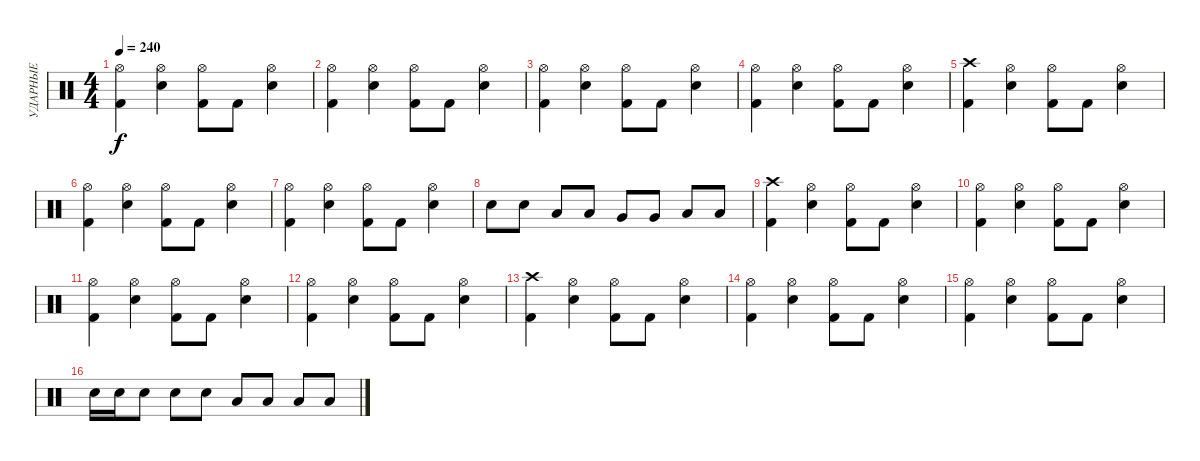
\track ("УДАРНЫЕ" "УДАРНЫЕ") {instrument percussion}
\staff {score}
\articulation defaults
\ts (4 4)
\tempo 240
\clef neutral
\ks c
("Kick (hit) 2" "Hi-Hat (open)").4{dy f} ("Snare (hit) 2" "Hi-Hat (open)").4 ("Kick (hit) 2" "Hi-Hat (open)").8 "Kick (hit) 2".8 ("Snare (hit) 2" "Hi-Hat (open)").4 |
("Kick (hit) 2" "Hi-Hat (open)").4 ("Snare (hit) 2" "Hi-Hat (open)").4 ("Kick (hit) 2" "Hi-Hat (open)").8 "Kick (hit) 2".8 ("Snare (hit) 2" "Hi-Hat (open)").4 |
("Kick (hit) 2" "Hi-Hat (open)").4 ("Snare (hit) 2" "Hi-Hat (open)").4 ("Kick (hit) 2" "Hi-Hat (open)").8 "Kick (hit) 2".8 ("Snare (hit) 2" "Hi-Hat (open)").4 |
("Kick (hit) 2" "Hi-Hat (open)").4 ("Snare (hit) 2" "Hi-Hat (open)").4 ("Kick (hit) 2" "Hi-Hat (open)").8 "Kick (hit) 2".8 ("Snare (hit) 2" "Hi-Hat (open)").4 |
("Kick (hit) 2" "Crash high (hit)").4 ("Snare (hit) 2" "Hi-Hat (open)").4 ("Kick (hit) 2" "Hi-Hat (open)").8 "Kick (hit) 2".8 ("Snare (hit) 2" "Hi-Hat (open)").4 |
("Kick (hit) 2" "Hi-Hat (open)").4 ("Snare (hit) 2" "Hi-Hat (open)").4 ("Kick (hit) 2" "Hi-Hat (open)").8 "Kick (hit) 2".8 ("Snare (hit) 2" "Hi-Hat (open)").4 |
("Kick (hit) 2" "Hi-Hat (open)").4 ("Snare (hit) 2" "Hi-Hat (open)").4 ("Kick (hit) 2" "Hi-Hat (open)").8 "Kick (hit) 2".8 ("Snare (hit) 2" "Hi-Hat (open)").4 |
"Snare (hit) 2".8 "Snare (hit) 2".8 "Low Tom (hit)".8 "Low Tom (hit)".8 "Very Low Tom (hit)".8 "Very Low Tom (hit)".8 "Low Floor Tom (hit)".8 "Low Floor Tom (hit)".8 |
("Kick (hit) 2" "Crash high (hit)").4 ("Snare (hit) 2" "Hi-Hat (open)").4 ("Kick (hit) 2" "Hi-Hat (open)").8 "Kick (hit) 2".8 ("Snare (hit) 2" "Hi-Hat (open)").4 |
("Kick (hit) 2" "Hi-Hat (open)").4 ("Snare (hit) 2" "Hi-Hat (open)").4 ("Kick (hit) 2" "Hi-Hat (open)").8 "Kick (hit) 2".8 ("Snare (hit) 2" "Hi-Hat (open)").4 |
("Kick (hit) 2" "Hi-Hat (open)").4 ("Snare (hit) 2" "Hi-Hat (open)").4 ("Kick (hit) 2" "Hi-Hat (open)").8 "Kick (hit) 2".8 ("Snare (hit) 2" "Hi-Hat (open)").4 |
("Kick (hit) 2" "Hi-Hat (open)").4 ("Snare (hit) 2" "Hi-Hat (open)").4 ("Kick (hit) 2" "Hi-Hat (open)").8 "Kick (hit) 2".8 ("Snare (hit) 2" "Hi-Hat (open)").4 |
("Kick (hit) 2" "Crash high (hit)").4 ("Snare (hit) 2" "Hi-Hat (open)").4 ("Kick (hit) 2" "Hi-Hat (open)").8 "Kick (hit) 2".8 ("Snare (hit) 2" "Hi-Hat (open)").4 |
("Kick (hit) 2" "Hi-Hat (open)").4 ("Snare (hit) 2" "Hi-Hat (open)").4 ("Kick (hit) 2" "Hi-Hat (open)").8 "Kick (hit) 2".8 ("Snare (hit) 2" "Hi-Hat (open)").4 |
("Kick (hit) 2" "Hi-Hat (open)").4 ("Snare (hit) 2" "Hi-Hat (open)").4 ("Kick (hit) 2" "Hi-Hat (open)").8 "Kick (hit) 2".8 ("Snare (hit) 2" "Hi-Hat (open)").4 |
"Electric Snare (hit)".16 "Electric Snare (hit)".16 "Electric Snare (hit)".8 "Electric Snare (hit)".8 "Electric Snare (hit)".8 "Low Tom (hit)".8 "Low Tom (hit)".8 "Low Tom (hit)".8 "Low Tom (hit)".8
